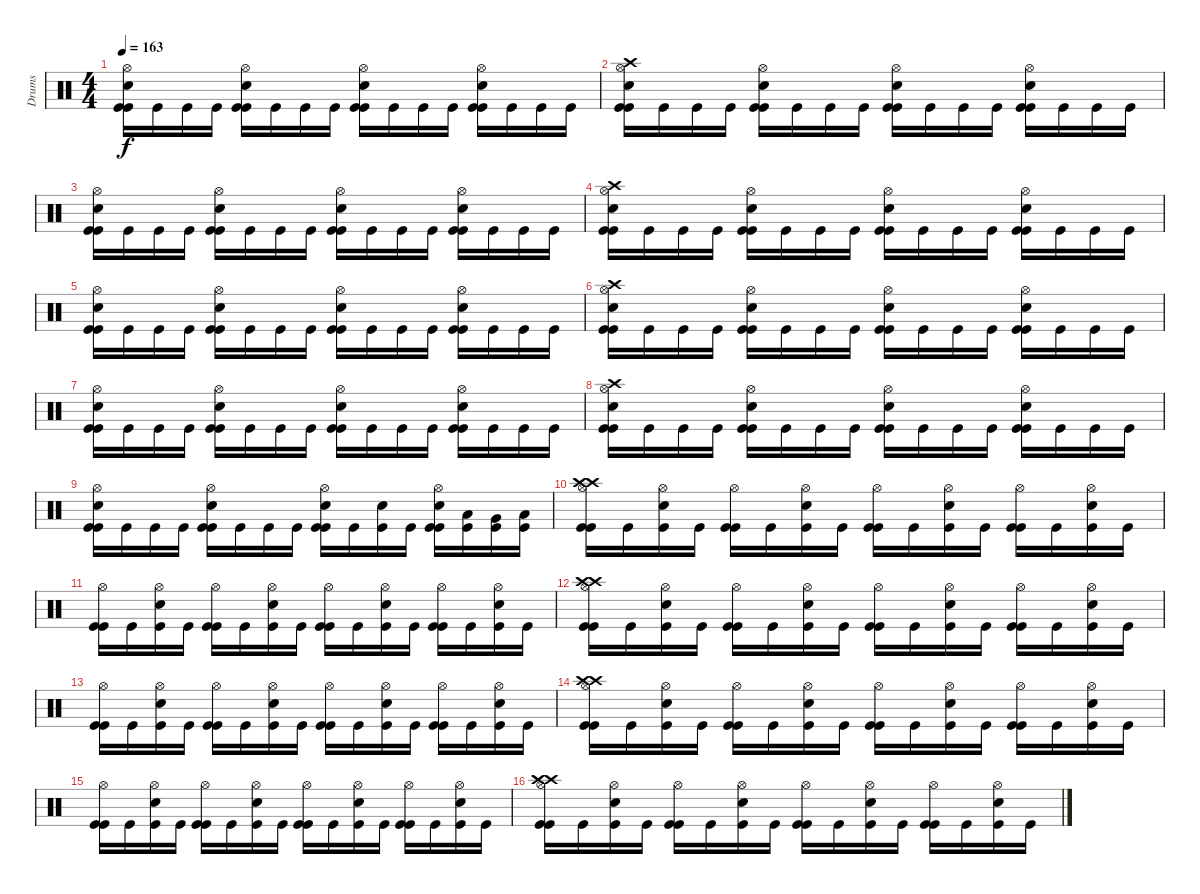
\track ("Drums" "Drums") {instrument percussion}
\staff {score}
\articulation defaults
\ts (4 4)
\tempo 163
\clef neutral
\ks c
("Hi-Hat (open)" "Electric Snare (hit)" "Kick (hit)" "Kick (hit)").16{dy f} "Kick (hit)".16 "Kick (hit)".16 "Kick (hit)".16 ("Hi-Hat (open)" "Electric Snare (hit)" "Kick (hit)" "Kick (hit)").16 "Kick (hit)".16 "Kick (hit)".16 "Kick (hit)".16 ("Hi-Hat (open)" "Electric Snare (hit)" "Kick (hit)" "Kick (hit)").16 "Kick (hit)".16 "Kick (hit)".16 "Kick (hit)".16 ("Hi-Hat (open)" "Electric Snare (hit)" "Kick (hit)" "Kick (hit)").16 "Kick (hit)".16 "Kick (hit)".16 "Kick (hit)".16 |
("Hi-Hat (open)" "Electric Snare (hit)" "Crash high (hit)" "Kick (hit)" "Kick (hit)").16 "Kick (hit)".16 "Kick (hit)".16 "Kick (hit)".16 ("Hi-Hat (open)" "Electric Snare (hit)" "Kick (hit)" "Kick (hit)").16 "Kick (hit)".16 "Kick (hit)".16 "Kick (hit)".16 ("Hi-Hat (open)" "Electric Snare (hit)" "Kick (hit)" "Kick (hit)").16 "Kick (hit)".16 "Kick (hit)".16 "Kick (hit)".16 ("Hi-Hat (open)" "Electric Snare (hit)" "Kick (hit)" "Kick (hit)").16 "Kick (hit)".16 "Kick (hit)".16 "Kick (hit)".16 |
("Hi-Hat (open)" "Electric Snare (hit)" "Kick (hit)" "Kick (hit)").16 "Kick (hit)".16 "Kick (hit)".16 "Kick (hit)".16 ("Hi-Hat (open)" "Electric Snare (hit)" "Kick (hit)" "Kick (hit)").16 "Kick (hit)".16 "Kick (hit)".16 "Kick (hit)".16 ("Hi-Hat (open)" "Electric Snare (hit)" "Kick (hit)" "Kick (hit)").16 "Kick (hit)".16 "Kick (hit)".16 "Kick (hit)".16 ("Hi-Hat (open)" "Electric Snare (hit)" "Kick (hit)" "Kick (hit)").16 "Kick (hit)".16 "Kick (hit)".16 "Kick (hit)".16 |
("Hi-Hat (open)" "Electric Snare (hit)" "Crash high (hit)" "Kick (hit)" "Kick (hit)").16 "Kick (hit)".16 "Kick (hit)".16 "Kick (hit)".16 ("Hi-Hat (open)" "Electric Snare (hit)" "Kick (hit)" "Kick (hit)").16 "Kick (hit)".16 "Kick (hit)".16 "Kick (hit)".16 ("Hi-Hat (open)" "Electric Snare (hit)" "Kick (hit)" "Kick (hit)").16 "Kick (hit)".16 "Kick (hit)".16 "Kick (hit)".16 ("Hi-Hat (open)" "Electric Snare (hit)" "Kick (hit)" "Kick (hit)").16 "Kick (hit)".16 "Kick (hit)".16 "Kick (hit)".16 |
("Hi-Hat (open)" "Electric Snare (hit)" "Kick (hit)" "Kick (hit)").16 "Kick (hit)".16 "Kick (hit)".16 "Kick (hit)".16 ("Hi-Hat (open)" "Electric Snare (hit)" "Kick (hit)" "Kick (hit)").16 "Kick (hit)".16 "Kick (hit)".16 "Kick (hit)".16 ("Hi-Hat (open)" "Electric Snare (hit)" "Kick (hit)" "Kick (hit)").16 "Kick (hit)".16 "Kick (hit)".16 "Kick (hit)".16 ("Hi-Hat (open)" "Electric Snare (hit)" "Kick (hit)" "Kick (hit)").16 "Kick (hit)".16 "Kick (hit)".16 "Kick (hit)".16 |
("Hi-Hat (open)" "Electric Snare (hit)" "Crash high (hit)" "Kick (hit)" "Kick (hit)").16 "Kick (hit)".16 "Kick (hit)".16 "Kick (hit)".16 ("Hi-Hat (open)" "Electric Snare (hit)" "Kick (hit)" "Kick (hit)").16 "Kick (hit)".16 "Kick (hit)".16 "Kick (hit)".16 ("Hi-Hat (open)" "Electric Snare (hit)" "Kick (hit)" "Kick (hit)").16 "Kick (hit)".16 "Kick (hit)".16 "Kick (hit)".16 ("Hi-Hat (open)" "Electric Snare (hit)" "Kick (hit)" "Kick (hit)").16 "Kick (hit)".16 "Kick (hit)".16 "Kick (hit)".16 |
("Hi-Hat (open)" "Electric Snare (hit)" "Kick (hit)" "Kick (hit)").16 "Kick (hit)".16 "Kick (hit)".16 "Kick (hit)".16 ("Hi-Hat (open)" "Electric Snare (hit)" "Kick (hit)" "Kick (hit)").16 "Kick (hit)".16 "Kick (hit)".16 "Kick (hit)".16 ("Hi-Hat (open)" "Electric Snare (hit)" "Kick (hit)" "Kick (hit)").16 "Kick (hit)".16 "Kick (hit)".16 "Kick (hit)".16 ("Hi-Hat (open)" "Electric Snare (hit)" "Kick (hit)" "Kick (hit)").16 "Kick (hit)".16 "Kick (hit)".16 "Kick (hit)".16 |
("Hi-Hat (open)" "Electric Snare (hit)" "Crash high (hit)" "Kick (hit)" "Kick (hit)").16 "Kick (hit)".16 "Kick (hit)".16 "Kick (hit)".16 ("Hi-Hat (open)" "Electric Snare (hit)" "Kick (hit)" "Kick (hit)").16 "Kick (hit)".16 "Kick (hit)".16 "Kick (hit)".16 ("Hi-Hat (open)" "Electric Snare (hit)" "Kick (hit)" "Kick (hit)").16 "Kick (hit)".16 "Kick (hit)".16 "Kick (hit)".16 ("Hi-Hat (open)" "Electric Snare (hit)" "Kick (hit)" "Kick (hit)").16 "Kick (hit)".16 "Kick (hit)".16 "Kick (hit)".16 |
("Hi-Hat (open)" "Electric Snare (hit)" "Kick (hit)" "Kick (hit)").16 "Kick (hit)".16 "Kick (hit)".16 "Kick (hit)".16 ("Hi-Hat (open)" "Electric Snare (hit)" "Kick (hit)" "Kick (hit)").16 "Kick (hit)".16 "Kick (hit)".16 "Kick (hit)".16 ("Hi-Hat (open)" "Electric Snare (hit)" "Kick (hit)" "Kick (hit)").16 "Kick (hit)".16 ("Electric Snare (hit)" "Kick (hit)").16 "Kick (hit)".16 ("Hi-Hat (open)" "Electric Snare (hit)" "Kick (hit)" "Kick (hit)").16 ("Low Tom (hit)" "Kick (hit)").16 ("Very Low Tom (hit)" "Kick (hit)").16 ("Low Floor Tom (hit)" "Kick (hit)").16 |
("Crash high (hit)" "Crash high (hit)" "Hi-Hat (open)" "Kick (hit)" "Kick (hit)").16 "Kick (hit)".16 ("Electric Snare (hit)" "Kick (hit)" "Hi-Hat (open)").16 "Kick (hit)".16 ("Hi-Hat (open)" "Kick (hit)" "Kick (hit)").16 "Kick (hit)".16 ("Electric Snare (hit)" "Kick (hit)" "Hi-Hat (open)").16 "Kick (hit)".16 ("Hi-Hat (open)" "Kick (hit)" "Kick (hit)").16 "Kick (hit)".16 ("Electric Snare (hit)" "Kick (hit)" "Hi-Hat (open)").16 "Kick (hit)".16 ("Hi-Hat (open)" "Kick (hit)" "Kick (hit)").16 "Kick (hit)".16 ("Electric Snare (hit)" "Kick (hit)" "Hi-Hat (open)").16 "Kick (hit)".16 |
("Hi-Hat (open)" "Kick (hit)" "Kick (hit)").16 "Kick (hit)".16 ("Electric Snare (hit)" "Kick (hit)" "Hi-Hat (open)").16 "Kick (hit)".16 ("Hi-Hat (open)" "Kick (hit)" "Kick (hit)").16 "Kick (hit)".16 ("Electric Snare (hit)" "Kick (hit)" "Hi-Hat (open)").16 "Kick (hit)".16 ("Hi-Hat (open)" "Kick (hit)" "Kick (hit)").16 "Kick (hit)".16 ("Electric Snare (hit)" "Kick (hit)" "Hi-Hat (open)").16 "Kick (hit)".16 ("Hi-Hat (open)" "Kick (hit)" "Kick (hit)").16 "Kick (hit)".16 ("Electric Snare (hit)" "Kick (hit)" "Hi-Hat (open)").16 "Kick (hit)".16 |
("Crash high (hit)" "Crash high (hit)" "Hi-Hat (open)" "Kick (hit)" "Kick (hit)").16 "Kick (hit)".16 ("Electric Snare (hit)" "Kick (hit)" "Hi-Hat (open)").16 "Kick (hit)".16 ("Hi-Hat (open)" "Kick (hit)" "Kick (hit)").16 "Kick (hit)".16 ("Electric Snare (hit)" "Kick (hit)" "Hi-Hat (open)").16 "Kick (hit)".16 ("Hi-Hat (open)" "Kick (hit)" "Kick (hit)").16 "Kick (hit)".16 ("Electric Snare (hit)" "Kick (hit)" "Hi-Hat (open)").16 "Kick (hit)".16 ("Hi-Hat (open)" "Kick (hit)" "Kick (hit)").16 "Kick (hit)".16 ("Electric Snare (hit)" "Kick (hit)" "Hi-Hat (open)").16 "Kick (hit)".16 |
("Hi-Hat (open)" "Kick (hit)" "Kick (hit)").16 "Kick (hit)".16 ("Electric Snare (hit)" "Kick (hit)" "Hi-Hat (open)").16 "Kick (hit)".16 ("Hi-Hat (open)" "Kick (hit)" "Kick (hit)").16 "Kick (hit)".16 ("Electric Snare (hit)" "Kick (hit)" "Hi-Hat (open)").16 "Kick (hit)".16 ("Hi-Hat (open)" "Kick (hit)" "Kick (hit)").16 "Kick (hit)".16 ("Electric Snare (hit)" "Kick (hit)" "Hi-Hat (open)").16 "Kick (hit)".16 ("Hi-Hat (open)" "Kick (hit)" "Kick (hit)").16 "Kick (hit)".16 ("Electric Snare (hit)" "Kick (hit)" "Hi-Hat (open)").16 "Kick (hit)".16 |
("Crash high (hit)" "Crash high (hit)" "Hi-Hat (open)" "Kick (hit)" "Kick (hit)").16 "Kick (hit)".16 ("Electric Snare (hit)" "Kick (hit)" "Hi-Hat (open)").16 "Kick (hit)".16 ("Hi-Hat (open)" "Kick (hit)" "Kick (hit)").16 "Kick (hit)".16 ("Electric Snare (hit)" "Kick (hit)" "Hi-Hat (open)").16 "Kick (hit)".16 ("Hi-Hat (open)" "Kick (hit)" "Kick (hit)").16 "Kick (hit)".16 ("Electric Snare (hit)" "Kick (hit)" "Hi-Hat (open)").16 "Kick (hit)".16 ("Hi-Hat (open)" "Kick (hit)" "Kick (hit)").16 "Kick (hit)".16 ("Electric Snare (hit)" "Kick (hit)" "Hi-Hat (open)").16 "Kick (hit)".16 |
("Hi-Hat (open)" "Kick (hit)" "Kick (hit)").16 "Kick (hit)".16 ("Electric Snare (hit)" "Kick (hit)" "Hi-Hat (open)").16 "Kick (hit)".16 ("Hi-Hat (open)" "Kick (hit)" "Kick (hit)").16 "Kick (hit)".16 ("Electric Snare (hit)" "Kick (hit)" "Hi-Hat (open)").16 "Kick (hit)".16 ("Hi-Hat (open)" "Kick (hit)" "Kick (hit)").16 "Kick (hit)".16 ("Electric Snare (hit)" "Kick (hit)" "Hi-Hat (open)").16 "Kick (hit)".16 ("Hi-Hat (open)" "Kick (hit)" "Kick (hit)").16 "Kick (hit)".16 ("Electric Snare (hit)" "Kick (hit)" "Hi-Hat (open)").16 "Kick (hit)".16 |
("Crash high (hit)" "Crash high (hit)" "Hi-Hat (open)" "Kick (hit)" "Kick (hit)").16 "Kick (hit)".16 ("Electric Snare (hit)" "Kick (hit)" "Hi-Hat (open)").16 "Kick (hit)".16 ("Hi-Hat (open)" "Kick (hit)" "Kick (hit)").16 "Kick (hit)".16 ("Electric Snare (hit)" "Kick (hit)" "Hi-Hat (open)").16 "Kick (hit)".16 ("Hi-Hat (open)" "Kick (hit)" "Kick (hit)").16 "Kick (hit)".16 ("Electric Snare (hit)" "Kick (hit)" "Hi-Hat (open)").16 "Kick (hit)".16 ("Hi-Hat (open)" "Kick (hit)" "Kick (hit)").16 "Kick (hit)".16 ("Electric Snare (hit)" "Kick (hit)" "Hi-Hat (open)").16 "Kick (hit)".16
